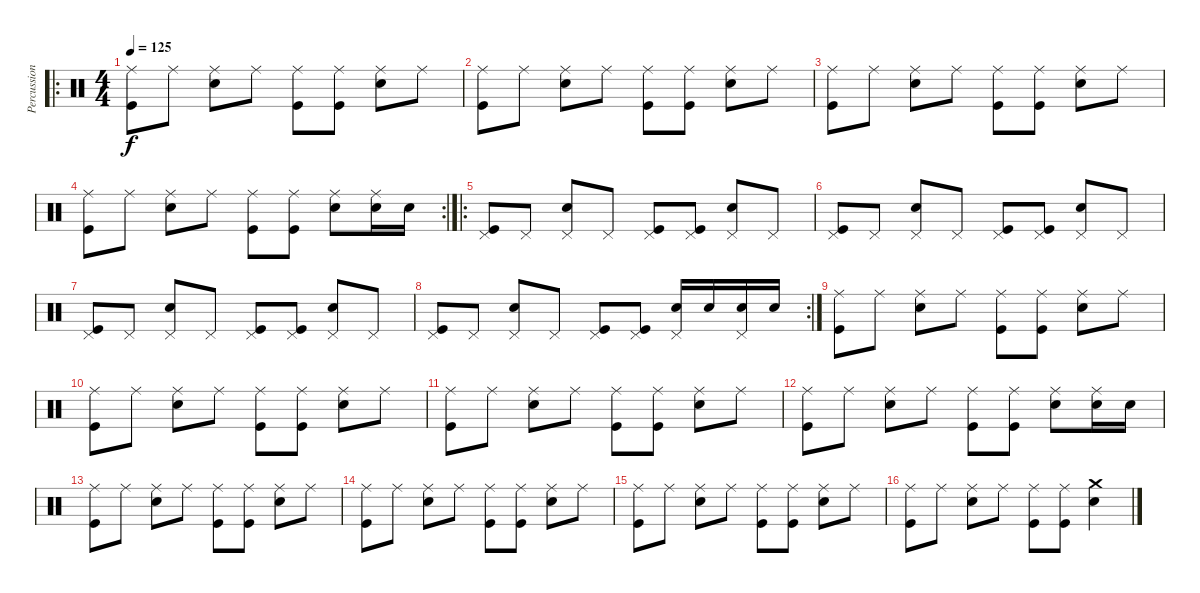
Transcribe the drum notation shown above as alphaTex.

\track ("Percussions" "Percussion") {instrument percussion}
\staff {score}
\articulation defaults
\ro
\ts (4 4)
\tempo 125
\clef neutral
\ks c
("Ride (middle)" "Kick (hit)").8{dy f} "Ride (middle)".8 ("Ride (middle)" "Electric Snare (hit)").8 "Ride (middle)".8 ("Ride (middle)" "Kick (hit)").8 ("Ride (middle)" "Kick (hit)").8 ("Ride (middle)" "Electric Snare (hit)").8 "Ride (middle)".8 |
("Ride (middle)" "Kick (hit)").8 "Ride (middle)".8 ("Ride (middle)" "Electric Snare (hit)").8 "Ride (middle)".8 ("Ride (middle)" "Kick (hit)").8 ("Ride (middle)" "Kick (hit)").8 ("Ride (middle)" "Electric Snare (hit)").8 "Ride (middle)".8 |
("Ride (middle)" "Kick (hit)").8 "Ride (middle)".8 ("Ride (middle)" "Electric Snare (hit)").8 "Ride (middle)".8 ("Ride (middle)" "Kick (hit)").8 ("Ride (middle)" "Kick (hit)").8 ("Ride (middle)" "Electric Snare (hit)").8 "Ride (middle)".8 |
\rc 2
("Ride (middle)" "Kick (hit)").8 "Ride (middle)".8 ("Ride (middle)" "Electric Snare (hit)").8 "Ride (middle)".8 ("Ride (middle)" "Kick (hit)").8 ("Ride (middle)" "Kick (hit)").8 ("Ride (middle)" "Electric Snare (hit)").8 ("Ride (middle)" "Electric Snare (hit)").16 "Electric Snare (hit)".16 |
\ro
("Pedal Hi-Hat (hit)" "Kick (hit)").8 "Pedal Hi-Hat (hit)".8 ("Pedal Hi-Hat (hit)" "Electric Snare (hit)").8 "Pedal Hi-Hat (hit)".8 ("Pedal Hi-Hat (hit)" "Kick (hit)").8 ("Pedal Hi-Hat (hit)" "Kick (hit)").8 ("Pedal Hi-Hat (hit)" "Electric Snare (hit)").8 "Pedal Hi-Hat (hit)".8 |
("Pedal Hi-Hat (hit)" "Kick (hit)").8 "Pedal Hi-Hat (hit)".8 ("Pedal Hi-Hat (hit)" "Electric Snare (hit)").8 "Pedal Hi-Hat (hit)".8 ("Pedal Hi-Hat (hit)" "Kick (hit)").8 ("Pedal Hi-Hat (hit)" "Kick (hit)").8 ("Pedal Hi-Hat (hit)" "Electric Snare (hit)").8 "Pedal Hi-Hat (hit)".8 |
("Pedal Hi-Hat (hit)" "Kick (hit)").8 "Pedal Hi-Hat (hit)".8 ("Pedal Hi-Hat (hit)" "Electric Snare (hit)").8 "Pedal Hi-Hat (hit)".8 ("Pedal Hi-Hat (hit)" "Kick (hit)").8 ("Pedal Hi-Hat (hit)" "Kick (hit)").8 ("Pedal Hi-Hat (hit)" "Electric Snare (hit)").8 "Pedal Hi-Hat (hit)".8 |
\rc 2
("Pedal Hi-Hat (hit)" "Kick (hit)").8 "Pedal Hi-Hat (hit)".8 ("Pedal Hi-Hat (hit)" "Electric Snare (hit)").8 "Pedal Hi-Hat (hit)".8 ("Pedal Hi-Hat (hit)" "Kick (hit)").8 ("Pedal Hi-Hat (hit)" "Kick (hit)").8 ("Pedal Hi-Hat (hit)" "Electric Snare (hit)").16 "Electric Snare (hit)".16 ("Pedal Hi-Hat (hit)" "Electric Snare (hit)").16 "Electric Snare (hit)".16 |
("Ride (middle)" "Kick (hit)").8 "Ride (middle)".8 ("Ride (middle)" "Electric Snare (hit)").8 "Ride (middle)".8 ("Ride (middle)" "Kick (hit)").8 ("Ride (middle)" "Kick (hit)").8 ("Ride (middle)" "Electric Snare (hit)").8 "Ride (middle)".8 |
("Ride (middle)" "Kick (hit)").8 "Ride (middle)".8 ("Ride (middle)" "Electric Snare (hit)").8 "Ride (middle)".8 ("Ride (middle)" "Kick (hit)").8 ("Ride (middle)" "Kick (hit)").8 ("Ride (middle)" "Electric Snare (hit)").8 "Ride (middle)".8 |
("Ride (middle)" "Kick (hit)").8 "Ride (middle)".8 ("Ride (middle)" "Electric Snare (hit)").8 "Ride (middle)".8 ("Ride (middle)" "Kick (hit)").8 ("Ride (middle)" "Kick (hit)").8 ("Ride (middle)" "Electric Snare (hit)").8 "Ride (middle)".8 |
("Ride (middle)" "Kick (hit)").8 "Ride (middle)".8 ("Ride (middle)" "Electric Snare (hit)").8 "Ride (middle)".8 ("Ride (middle)" "Kick (hit)").8 ("Ride (middle)" "Kick (hit)").8 ("Ride (middle)" "Electric Snare (hit)").8 ("Ride (middle)" "Electric Snare (hit)").16 "Electric Snare (hit)".16 |
("Ride (middle)" "Kick (hit)").8 "Ride (middle)".8 ("Ride (middle)" "Electric Snare (hit)").8 "Ride (middle)".8 ("Ride (middle)" "Kick (hit)").8 ("Ride (middle)" "Kick (hit)").8 ("Ride (middle)" "Electric Snare (hit)").8 "Ride (middle)".8 |
("Ride (middle)" "Kick (hit)").8 "Ride (middle)".8 ("Ride (middle)" "Electric Snare (hit)").8 "Ride (middle)".8 ("Ride (middle)" "Kick (hit)").8 ("Ride (middle)" "Kick (hit)").8 ("Ride (middle)" "Electric Snare (hit)").8 "Ride (middle)".8 |
("Ride (middle)" "Kick (hit)").8 "Ride (middle)".8 ("Ride (middle)" "Electric Snare (hit)").8 "Ride (middle)".8 ("Ride (middle)" "Kick (hit)").8 ("Ride (middle)" "Kick (hit)").8 ("Ride (middle)" "Electric Snare (hit)").8 "Ride (middle)".8 |
("Ride (middle)" "Kick (hit)").8 "Ride (middle)".8 ("Ride (middle)" "Electric Snare (hit)").8 "Ride (middle)".8 ("Ride (middle)" "Kick (hit)").8 ("Ride (middle)" "Kick (hit)").8 ("Crash medium (hit)" "Electric Snare (hit)").4
